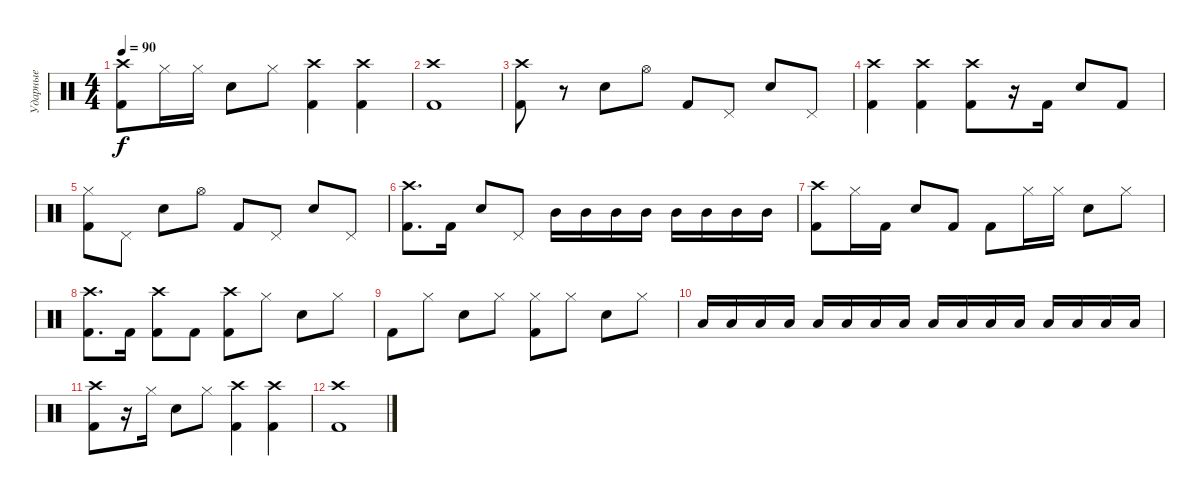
\track ("Ударные" "Ударные") {instrument percussion}
\staff {score}
\articulation defaults
\ts (4 4)
\tempo 90
\clef neutral
\ks c
("Crash high (hit)" "Kick (hit) 2").8{dy f} "Hi-Hat (closed)".16 "Hi-Hat (closed)".16 "Snare (hit) 2".8 "Hi-Hat (closed)".8 ("Crash high (hit)" "Kick (hit) 2").4 ("Crash high (hit)" "Kick (hit) 2").4 |
("Crash high (hit)" "Kick (hit) 2").1 |
("Crash high (hit)" "Kick (hit) 2").8 r.8 "Snare (hit) 2".8 "Hi-Hat (open)".8 "Kick (hit) 2".8 "Pedal Hi-Hat (hit)".8 "Snare (hit) 2".8 "Pedal Hi-Hat (hit)".8 |
("Crash high (hit)" "Kick (hit) 2").4 ("Crash high (hit)" "Kick (hit) 2").4 ("Crash high (hit)" "Kick (hit) 2").8 r.16 "Kick (hit) 2".16 "Snare (hit) 2".8 "Kick (hit) 2".8 |
("Hi-Hat (closed)" "Kick (hit) 2").8 "Pedal Hi-Hat (hit)".8 "Snare (hit) 2".8 "Hi-Hat (open)".8 "Kick (hit) 2".8 "Pedal Hi-Hat (hit)".8 "Snare (hit) 2".8 "Pedal Hi-Hat (hit)".8 |
("Crash high (hit)" "Kick (hit) 2").8{d} "Kick (hit) 2".16 "Snare (hit) 2".8 "Pedal Hi-Hat (hit)".8 "Mid Tom (hit)".16 "Mid Tom (hit)".16 "Mid Tom (hit)".16 "Mid Tom (hit)".16 "Mid Tom (hit)".16 "Mid Tom (hit)".16 "Mid Tom (hit)".16 "Mid Tom (hit)".16 |
("Crash high (hit)" "Kick (hit) 2").8 "Hi-Hat (closed)".16 "Kick (hit) 2".16 "Snare (hit) 2".8 "Kick (hit) 2".8 "Kick (hit) 2".8 "Hi-Hat (closed)".16 "Hi-Hat (closed)".16 "Snare (hit) 2".8 "Hi-Hat (closed)".8 |
("Crash high (hit)" "Kick (hit) 2").8{d} "Kick (hit) 2".16 ("Crash high (hit)" "Kick (hit) 2").8 "Kick (hit) 2".8 ("Crash high (hit)" "Kick (hit) 2").8 "Hi-Hat (closed)".8 "Snare (hit) 2".8 "Hi-Hat (closed)".8 |
"Kick (hit) 2".8 "Hi-Hat (closed)".8 "Snare (hit) 2".8 "Hi-Hat (closed)".8 ("Hi-Hat (closed)" "Kick (hit) 2").8 "Hi-Hat (closed)".8 "Snare (hit) 2".8 "Hi-Hat (closed)".8 |
"Low Tom (hit)".16 "Low Tom (hit)".16 "Low Tom (hit)".16 "Low Tom (hit)".16 "Low Tom (hit)".16 "Low Tom (hit)".16 "Low Tom (hit)".16 "Low Tom (hit)".16 "Low Tom (hit)".16 "Low Tom (hit)".16 "Low Tom (hit)".16 "Low Tom (hit)".16 "Low Tom (hit)".16 "Low Tom (hit)".16 "Low Tom (hit)".16 "Low Tom (hit)".16 |
("Crash high (hit)" "Kick (hit) 2").8 r.16 "Hi-Hat (closed)".16 "Snare (hit) 2".8 "Hi-Hat (closed)".8 ("Crash high (hit)" "Kick (hit) 2").4 ("Crash high (hit)" "Kick (hit) 2").4 |
("Crash high (hit)" "Kick (hit) 2").1
